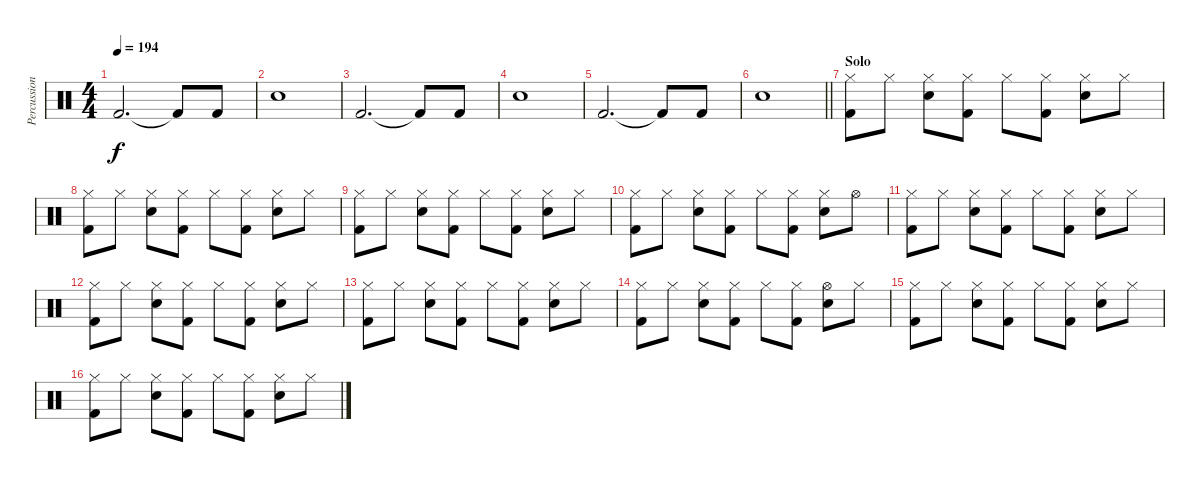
\track ("Percussion" "Percussion") {instrument percussion}
\staff {score}
\articulation defaults
\ts (4 4)
\tempo 194
\clef neutral
\ks c "Kick (hit) 2".2{d dy f} "Kick (hit) 2"{t}.8 "Kick (hit) 2".8
|
"Snare (hit) 2".1 |
"Kick (hit) 2".2{d} "Kick (hit) 2"{t}.8 "Kick (hit) 2".8 |
"Snare (hit) 2".1 |
"Kick (hit) 2".2{d} "Kick (hit) 2"{t}.8 "Kick (hit) 2".8 |
\barLineRight lightlight "Snare (hit) 2".1
|
\section ("" "Solo")
("Hi-Hat (closed)" "Kick (hit) 2").8 "Hi-Hat (closed)".8 ("Hi-Hat (closed)" "Snare (hit) 2").8 ("Hi-Hat (closed)" "Kick (hit) 2").8 "Hi-Hat (closed)".8 ("Hi-Hat (closed)" "Kick (hit) 2").8 ("Hi-Hat (closed)" "Snare (hit) 2").8 "Hi-Hat (closed)".8 |
("Hi-Hat (closed)" "Kick (hit) 2").8 "Hi-Hat (closed)".8 ("Hi-Hat (closed)" "Snare (hit) 2").8 ("Hi-Hat (closed)" "Kick (hit) 2").8 "Hi-Hat (closed)".8 ("Hi-Hat (closed)" "Kick (hit) 2").8 ("Hi-Hat (closed)" "Snare (hit) 2").8 "Hi-Hat (closed)".8 |
("Hi-Hat (closed)" "Kick (hit) 2").8 "Hi-Hat (closed)".8 ("Hi-Hat (closed)" "Snare (hit) 2").8 ("Hi-Hat (closed)" "Kick (hit) 2").8 "Hi-Hat (closed)".8 ("Hi-Hat (closed)" "Kick (hit) 2").8 ("Hi-Hat (closed)" "Snare (hit) 2").8 "Hi-Hat (closed)".8 |
("Hi-Hat (closed)" "Kick (hit) 2").8 "Hi-Hat (closed)".8 ("Hi-Hat (closed)" "Snare (hit) 2").8 ("Hi-Hat (closed)" "Kick (hit) 2").8 "Hi-Hat (closed)".8 ("Hi-Hat (closed)" "Kick (hit) 2").8 ("Hi-Hat (closed)" "Snare (hit) 2").8 "Hi-Hat (open)".8 |
("Hi-Hat (closed)" "Kick (hit) 2").8 "Hi-Hat (closed)".8 ("Hi-Hat (closed)" "Snare (hit) 2").8 ("Hi-Hat (closed)" "Kick (hit) 2").8 "Hi-Hat (closed)".8 ("Hi-Hat (closed)" "Kick (hit) 2").8 ("Hi-Hat (closed)" "Snare (hit) 2").8 "Hi-Hat (closed)".8 |
("Hi-Hat (closed)" "Kick (hit) 2").8 "Hi-Hat (closed)".8 ("Hi-Hat (closed)" "Snare (hit) 2").8 ("Hi-Hat (closed)" "Kick (hit) 2").8 "Hi-Hat (closed)".8 ("Hi-Hat (closed)" "Kick (hit) 2").8 ("Hi-Hat (closed)" "Snare (hit) 2").8 "Hi-Hat (closed)".8 |
("Hi-Hat (closed)" "Kick (hit) 2").8 "Hi-Hat (closed)".8 ("Hi-Hat (closed)" "Snare (hit) 2").8 ("Hi-Hat (closed)" "Kick (hit) 2").8 "Hi-Hat (closed)".8 ("Hi-Hat (closed)" "Kick (hit) 2").8 ("Hi-Hat (closed)" "Snare (hit) 2").8 "Hi-Hat (closed)".8 |
("Hi-Hat (closed)" "Kick (hit) 2").8 "Hi-Hat (closed)".8 ("Hi-Hat (closed)" "Snare (hit) 2").8 ("Hi-Hat (closed)" "Kick (hit) 2").8 "Hi-Hat (closed)".8 ("Hi-Hat (closed)" "Kick (hit) 2").8 ("Hi-Hat (open)" "Snare (hit) 2").8 "Hi-Hat (closed)".8 |
("Hi-Hat (closed)" "Kick (hit) 2").8 "Hi-Hat (closed)".8 ("Hi-Hat (closed)" "Snare (hit) 2").8 ("Hi-Hat (closed)" "Kick (hit) 2").8 "Hi-Hat (closed)".8 ("Hi-Hat (closed)" "Kick (hit) 2").8 ("Hi-Hat (closed)" "Snare (hit) 2").8 "Hi-Hat (closed)".8 |
("Hi-Hat (closed)" "Kick (hit) 2").8 "Hi-Hat (closed)".8 ("Hi-Hat (closed)" "Snare (hit) 2").8 ("Hi-Hat (closed)" "Kick (hit) 2").8 "Hi-Hat (closed)".8 ("Hi-Hat (closed)" "Kick (hit) 2").8 ("Hi-Hat (closed)" "Snare (hit) 2").8 "Hi-Hat (closed)".8
